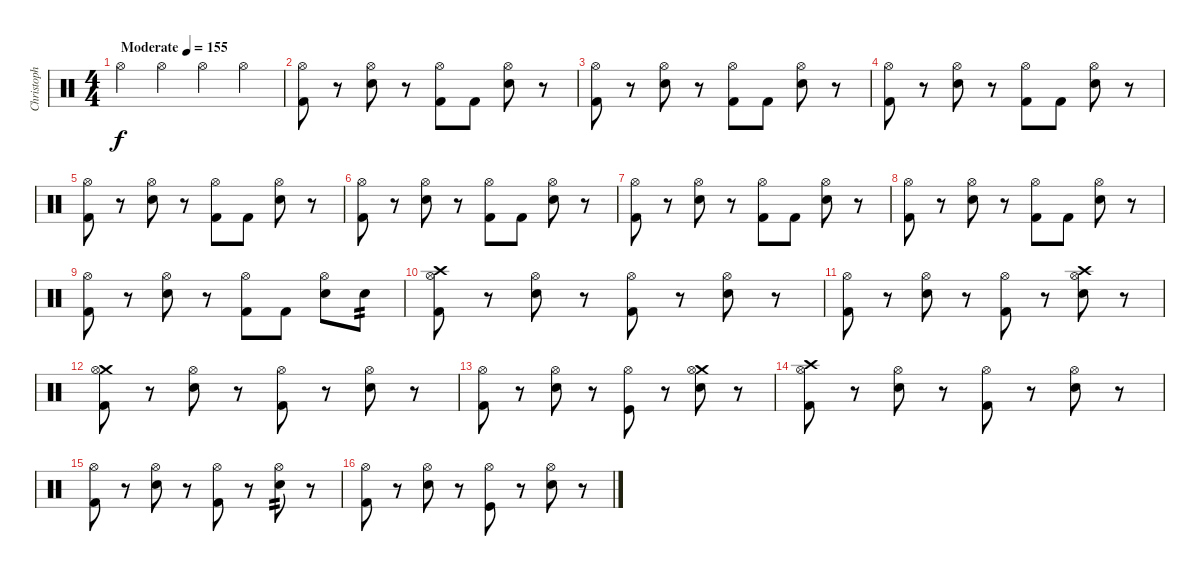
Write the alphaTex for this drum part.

\track ("Christoph \"Doom\" Schneider" "Christoph ") {instrument percussion}
\staff {score}
\articulation defaults
\ts (4 4)
\tempo (155 "Moderate")
\clef neutral
\ks c "Hi-Hat (open)".4{dy f} "Hi-Hat (open)".4 "Hi-Hat (open)".4 "Hi-Hat (open)".4
|
("Kick (hit) 2" "Hi-Hat (open)").8 r.8 ("Electric Snare (hit)" "Hi-Hat (open)").8 r.8 ("Kick (hit) 2" "Hi-Hat (open)").8 "Kick (hit) 2".8 ("Electric Snare (hit)" "Hi-Hat (open)").8 r.8 |
("Kick (hit) 2" "Hi-Hat (open)").8 r.8 ("Electric Snare (hit)" "Hi-Hat (open)").8 r.8 ("Kick (hit) 2" "Hi-Hat (open)").8 "Kick (hit) 2".8 ("Electric Snare (hit)" "Hi-Hat (open)").8 r.8 |
("Kick (hit) 2" "Hi-Hat (open)").8 r.8 ("Electric Snare (hit)" "Hi-Hat (open)").8 r.8 ("Kick (hit) 2" "Hi-Hat (open)").8 "Kick (hit) 2".8 ("Electric Snare (hit)" "Hi-Hat (open)").8 r.8 |
("Kick (hit) 2" "Hi-Hat (open)").8 r.8 ("Electric Snare (hit)" "Hi-Hat (open)").8 r.8 ("Kick (hit) 2" "Hi-Hat (open)").8 "Kick (hit) 2".8 ("Electric Snare (hit)" "Hi-Hat (open)").8 r.8 |
("Kick (hit) 2" "Hi-Hat (open)").8 r.8 ("Electric Snare (hit)" "Hi-Hat (open)").8 r.8 ("Kick (hit) 2" "Hi-Hat (open)").8 "Kick (hit) 2".8 ("Electric Snare (hit)" "Hi-Hat (open)").8 r.8 |
("Kick (hit) 2" "Hi-Hat (open)").8 r.8 ("Electric Snare (hit)" "Hi-Hat (open)").8 r.8 ("Kick (hit) 2" "Hi-Hat (open)").8 "Kick (hit) 2".8 ("Electric Snare (hit)" "Hi-Hat (open)").8 r.8 |
("Kick (hit) 2" "Hi-Hat (open)").8 r.8 ("Electric Snare (hit)" "Hi-Hat (open)").8 r.8 ("Kick (hit) 2" "Hi-Hat (open)").8 "Kick (hit) 2".8 ("Electric Snare (hit)" "Hi-Hat (open)").8 r.8 |
("Kick (hit) 2" "Hi-Hat (open)").8 r.8 ("Electric Snare (hit)" "Hi-Hat (open)").8 r.8 ("Kick (hit) 2" "Hi-Hat (open)").8 "Kick (hit) 2".8 ("Electric Snare (hit)" "Hi-Hat (open)").8 "Electric Snare (hit)".8{tp 2} |
("Kick (hit) 2" "Crash high (hit)" "Hi-Hat (open)").8 r.8 ("Electric Snare (hit)" "Hi-Hat (open)").8 r.8 ("Kick (hit) 2" "Hi-Hat (open)").8 r.8 ("Electric Snare (hit)" "Hi-Hat (open)").8 r.8 |
("Kick (hit) 2" "Hi-Hat (open)").8 r.8 ("Electric Snare (hit)" "Hi-Hat (open)").8 r.8 ("Kick (hit) 2" "Hi-Hat (open)").8 r.8 ("Electric Snare (hit)" "Crash high (hit)" "Hi-Hat (open)").8 r.8 |
("Kick (hit) 2" "Crash medium (hit)" "Hi-Hat (open)").8 r.8 ("Electric Snare (hit)" "Hi-Hat (open)").8 r.8 ("Kick (hit) 2" "Hi-Hat (open)").8 r.8 ("Electric Snare (hit)" "Hi-Hat (open)").8 r.8 |
("Kick (hit) 2" "Hi-Hat (open)").8 r.8 ("Electric Snare (hit)" "Hi-Hat (open)").8 r.8 ("Kick (hit)" "Hi-Hat (open)").8 r.8 ("Electric Snare (hit)" "Crash medium (hit)" "Hi-Hat (open)").8 r.8 |
("Kick (hit) 2" "Crash high (hit)" "Hi-Hat (open)").8 r.8 ("Electric Snare (hit)" "Hi-Hat (open)").8 r.8 ("Kick (hit) 2" "Hi-Hat (open)").8 r.8 ("Electric Snare (hit)" "Hi-Hat (open)").8 r.8 |
("Kick (hit) 2" "Hi-Hat (open)").8 r.8 ("Electric Snare (hit)" "Hi-Hat (open)").8 r.8 ("Kick (hit) 2" "Hi-Hat (open)").8 r.8 ("Electric Snare (hit)" "Hi-Hat (open)").8{tp 2} r.8 |
("Kick (hit) 2" "Hi-Hat (open)").8 r.8 ("Electric Snare (hit)" "Hi-Hat (open)").8 r.8 ("Kick (hit)" "Hi-Hat (open)").8 r.8 ("Electric Snare (hit)" "Hi-Hat (open)").8 r.8
